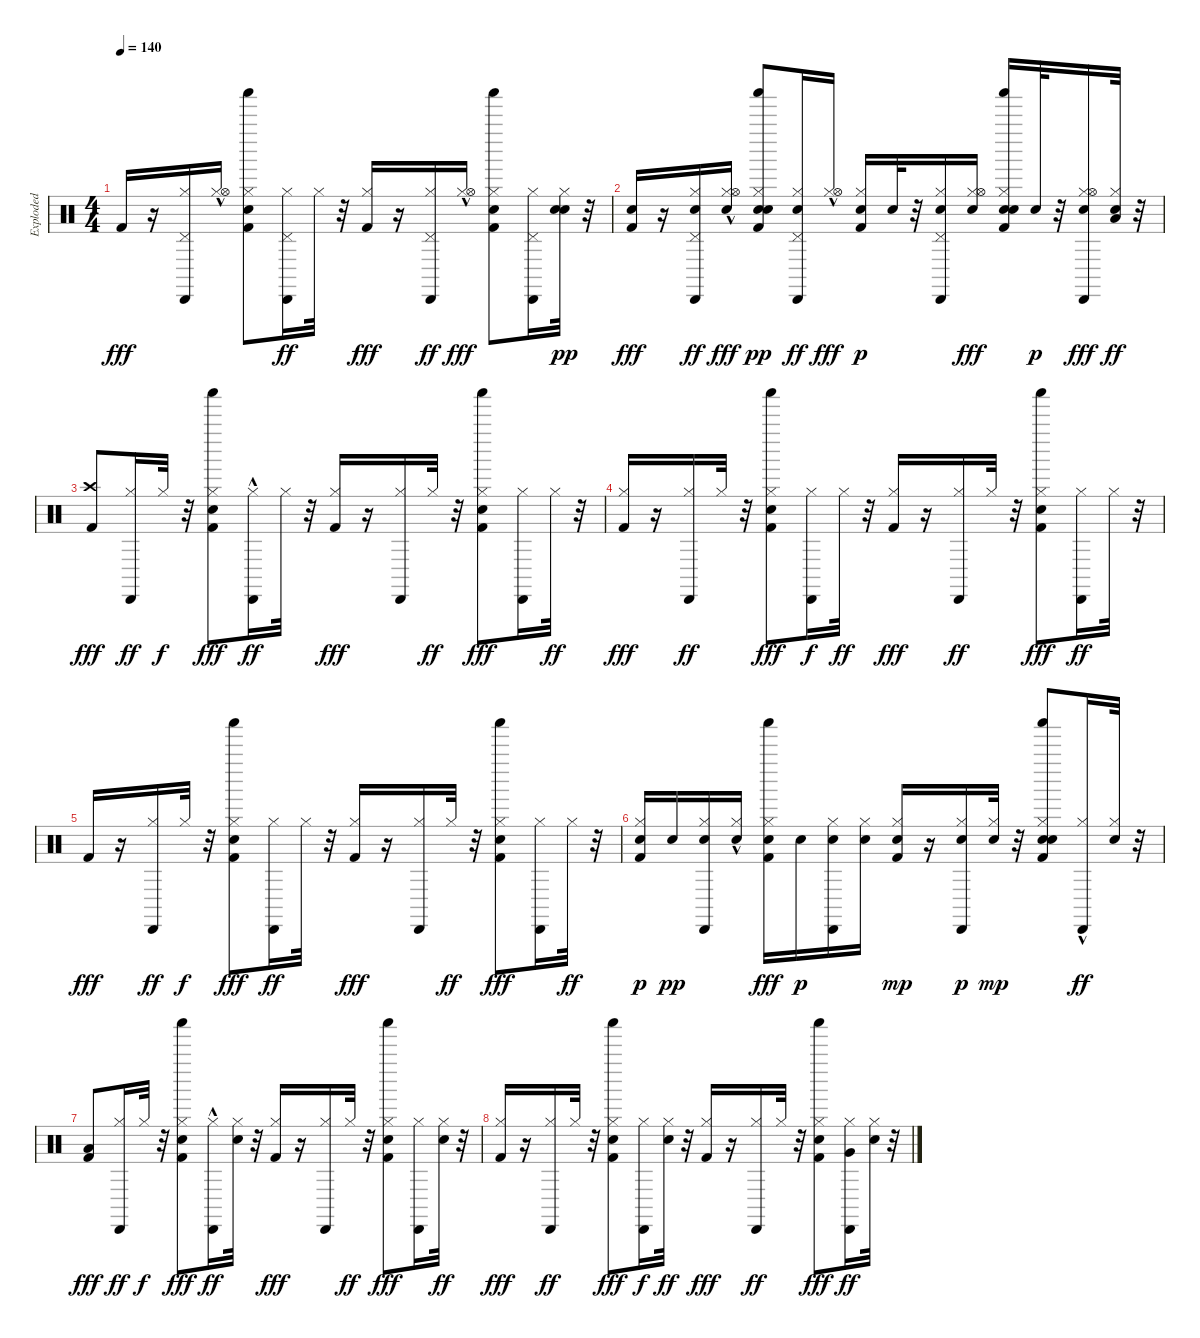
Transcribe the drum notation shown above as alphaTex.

\track ("Exploded" "Exploded") {instrument percussion}
\staff {score}
\articulation defaults
\ts (4 4)
\tempo 140
\clef neutral
\ks c "Kick (hit) 2".16{dy fff}
r.16 ("Cabasa (hit)" "Hi-Hat (closed)" "Pedal Hi-Hat (hit)").16 ("Hi-Hat (closed)" "Hi-Hat (open)"{hac}).16 ("Hand Clap (hit)" "Shaker (hit)" "Hi-Hat (closed)" "Kick (hit) 2").8 ("Cabasa (hit)" "Hi-Hat (closed)" "Pedal Hi-Hat (hit)").16{dy ff} "Hi-Hat (closed)".32 r.32 ("Hi-Hat (closed)" "Kick (hit) 2").16{dy fff} r.16 ("Cabasa (hit)" "Hi-Hat (closed)" "Pedal Hi-Hat (hit)").16{dy ff} ("Hi-Hat (closed)" "Hi-Hat (open)"{hac}).16{dy fff} ("Hand Clap (hit)" "Shaker (hit)" "Hi-Hat (closed)" "Kick (hit) 2").8 ("Cabasa (hit)" "Hi-Hat (closed)" "Pedal Hi-Hat (hit)").16 ("Snare (hit) 2" "Hi-Hat (closed)" "Snare (hit) 2").32{dy pp} r.32 |
("Snare (hit) 2" "Kick (hit) 2").16{dy fff} r.16 ("Cabasa (hit)" "Hi-Hat (closed)" "Snare (hit) 2" "Pedal Hi-Hat (hit)").16{dy ff} ("Snare (hit) 2" "Hi-Hat (closed)" "Hi-Hat (open)"{hac}).16{dy fff} ("Hand Clap (hit)" "Shaker (hit)" "Hi-Hat (closed)" "Kick (hit) 2" "Snare (hit) 2").8{dy pp} ("Cabasa (hit)" "Hi-Hat (closed)" "Snare (hit) 2" "Pedal Hi-Hat (hit)").16{dy ff} ("Hi-Hat (closed)" "Hi-Hat (open)"{hac}).16{dy fff} ("Hi-Hat (closed)" "Kick (hit) 2" "Snare (hit) 2").16{dy p} "Snare (hit) 2".32 r.32 ("Cabasa (hit)" "Hi-Hat (closed)" "Snare (hit) 2" "Pedal Hi-Hat (hit)").16 ("Snare (hit) 2" "Hi-Hat (closed)" "Hi-Hat (open)").16{dy fff} ("Snare (hit) 2" "Hand Clap (hit)" "Shaker (hit)" "Hi-Hat (closed)" "Kick (hit) 2").16 "Snare (hit) 2".32{dy p} r.32 ("Snare (hit) 2" "Cabasa (hit)" "Hi-Hat (closed)" "Hi-Hat (open)").16{dy fff} ("Low Floor Tom (hit)" "Snare (hit) 2" "Hi-Hat (closed)").32{dy ff} r.32 |
("Crash high (hit)" "Kick (hit) 2").8{dy fff} ("Cabasa (hit)" "Hi-Hat (closed)").16{dy ff} "Hi-Hat (closed)".32{dy f} r.32 ("Hand Clap (hit)" "Shaker (hit)" "Hi-Hat (closed)" "Kick (hit) 2").8{dy fff} ("Cabasa (hit)"{hac} "Hi-Hat (closed)").16{dy ff} "Hi-Hat (closed)".32 r.32 ("Hi-Hat (closed)" "Kick (hit) 2").16{dy fff} r.16 ("Cabasa (hit)" "Hi-Hat (closed)").16 "Hi-Hat (closed)".32{dy ff} r.32 ("Hand Clap (hit)" "Shaker (hit)" "Hi-Hat (closed)" "Kick (hit) 2").8{dy fff} ("Cabasa (hit)" "Hi-Hat (closed)").16 "Hi-Hat (closed)".32{dy ff} r.32 |
("Hi-Hat (closed)" "Kick (hit) 2").16{dy fff} r.16 ("Cabasa (hit)" "Hi-Hat (closed)").16{dy ff} "Hi-Hat (closed)".32 r.32 ("Hand Clap (hit)" "Shaker (hit)" "Hi-Hat (closed)" "Kick (hit) 2").8{dy fff} ("Cabasa (hit)" "Hi-Hat (closed)").16{dy f} "Hi-Hat (closed)".32{dy ff} r.32 ("Hi-Hat (closed)" "Kick (hit) 2").16{dy fff} r.16 ("Cabasa (hit)" "Hi-Hat (closed)").16{dy ff} "Hi-Hat (closed)".32 r.32 ("Hand Clap (hit)" "Shaker (hit)" "Hi-Hat (closed)" "Kick (hit) 2").8{dy fff} ("Cabasa (hit)" "Hi-Hat (closed)").16{dy ff} "Hi-Hat (closed)".32 r.32 |
"Kick (hit) 2".16{dy fff} r.16 ("Cabasa (hit)" "Hi-Hat (closed)").16{dy ff} "Hi-Hat (closed)".32{dy f} r.32 ("Hand Clap (hit)" "Shaker (hit)" "Hi-Hat (closed)" "Kick (hit) 2").8{dy fff} ("Cabasa (hit)" "Hi-Hat (closed)").16{dy ff} "Hi-Hat (closed)".32 r.32 ("Hi-Hat (closed)" "Kick (hit) 2").16{dy fff} r.16 ("Cabasa (hit)" "Hi-Hat (closed)").16 "Hi-Hat (closed)".32{dy ff} r.32 ("Hand Clap (hit)" "Shaker (hit)" "Hi-Hat (closed)" "Kick (hit) 2").8{dy fff} ("Cabasa (hit)" "Hi-Hat (closed)").16 "Hi-Hat (closed)".32{dy ff} r.32 |
("Hi-Hat (closed)" "Kick (hit) 2" "Snare (hit) 2").16{dy p} "Snare (hit) 2".16{dy pp} ("Cabasa (hit)" "Hi-Hat (closed)" "Snare (hit) 2").16 ("Hi-Hat (closed)" "Snare (hit) 2"{hac}).16 ("Hand Clap (hit)" "Shaker (hit)" "Hi-Hat (closed)" "Kick (hit) 2").16{dy fff} "Snare (hit) 2".16{dy p} ("Cabasa (hit)" "Hi-Hat (closed)" "Snare (hit) 2").16 ("Hi-Hat (closed)" "Snare (hit) 2").16 ("Hi-Hat (closed)" "Kick (hit) 2" "Snare (hit) 2").16{dy mp} r.16 ("Cabasa (hit)" "Hi-Hat (closed)" "Snare (hit) 2").16{dy p} ("Hi-Hat (closed)" "Snare (hit) 2").32{dy mp} r.32 ("Hand Clap (hit)" "Shaker (hit)" "Hi-Hat (closed)" "Kick (hit) 2" "Snare (hit) 2").8 ("Cabasa (hit)"{hac} "Hi-Hat (closed)").16{dy ff} ("Snare (hit) 2" "Hi-Hat (closed)").32 r.32 |
("Low Floor Tom (hit)" "Kick (hit) 2").8{dy fff} ("Cabasa (hit)" "Hi-Hat (closed)").16{dy ff} "Hi-Hat (closed)".32{dy f} r.32 ("Hand Clap (hit)" "Shaker (hit)" "Hi-Hat (closed)" "Kick (hit) 2").8{dy fff} ("Cabasa (hit)"{hac} "Hi-Hat (closed)").16{dy ff} ("Snare (hit) 2" "Hi-Hat (closed)").32 r.32 ("Hi-Hat (closed)" "Kick (hit) 2").16{dy fff} r.16 ("Cabasa (hit)" "Hi-Hat (closed)").16 "Hi-Hat (closed)".32{dy ff} r.32 ("Hand Clap (hit)" "Shaker (hit)" "Hi-Hat (closed)" "Kick (hit) 2").8{dy fff} ("Cabasa (hit)" "Hi-Hat (closed)").16 ("Snare (hit) 2" "Hi-Hat (closed)").32{dy ff} r.32 |
("Hi-Hat (closed)" "Kick (hit) 2").16{dy fff} r.16 ("Cabasa (hit)" "Hi-Hat (closed)").16{dy ff} "Hi-Hat (closed)".32 r.32 ("Hand Clap (hit)" "Shaker (hit)" "Hi-Hat (closed)" "Kick (hit) 2").8{dy fff} ("Cabasa (hit)" "Hi-Hat (closed)").16{dy f} ("Snare (hit) 2" "Hi-Hat (closed)").32{dy ff} r.32 ("Hi-Hat (closed)" "Kick (hit) 2").16{dy fff} r.16 ("Cabasa (hit)" "Hi-Hat (closed)").16{dy ff} "Hi-Hat (closed)".32 r.32 ("Hand Clap (hit)" "Shaker (hit)" "Hi-Hat (closed)" "Kick (hit) 2").8{dy fff} ("Very Low Tom (hit)" "Cabasa (hit)" "Hi-Hat (closed)").16{dy ff} ("Snare (hit) 2" "Hi-Hat (closed)").32 r.32
